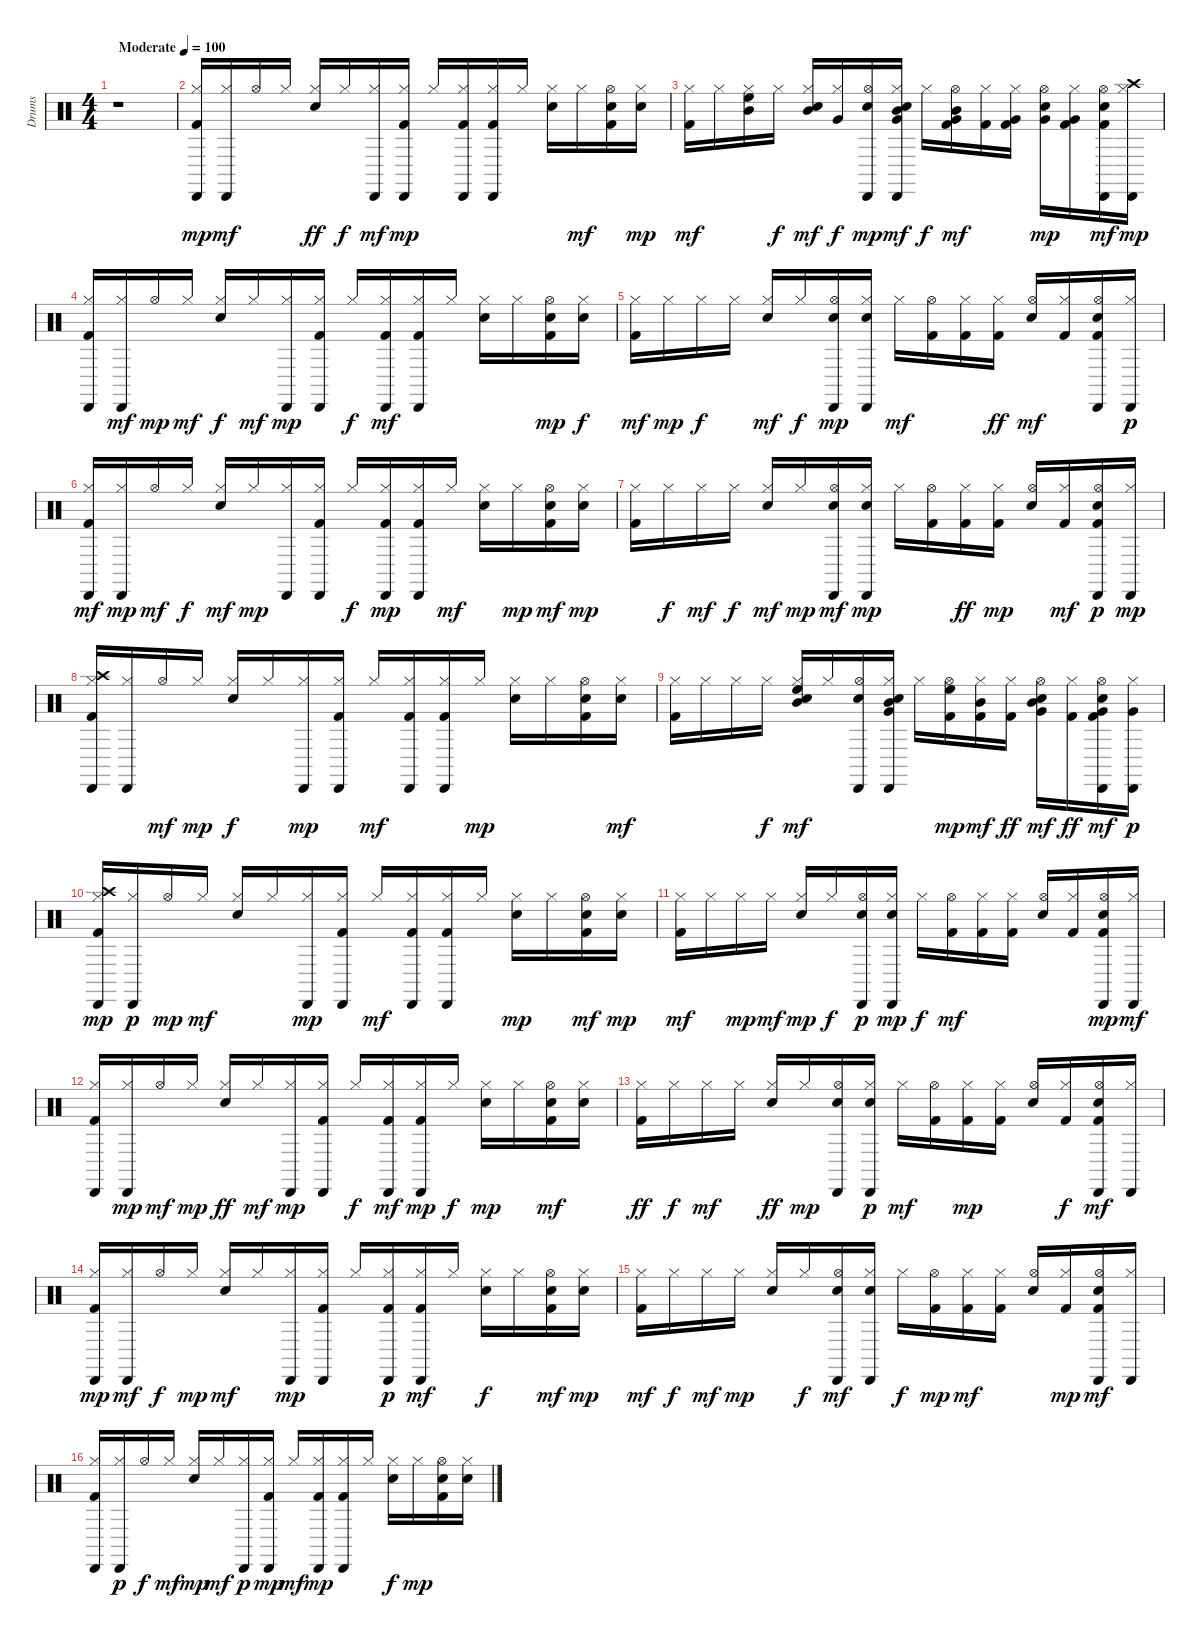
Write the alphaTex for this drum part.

\track ("Drums" "Drums") {instrument percussion}
\staff {score}
\articulation defaults
\ts (4 4)
\tempo (100 "Moderate")
\clef neutral
\ks c
r.1{dy mp} |
("Kick (hit) 2" "Hi-Hat (closed)" "Cabasa (hit)").16 ("Hi-Hat (closed)" "Cabasa (hit)").16{dy mf} "Hi-Hat (open)".16 "Hi-Hat (closed)".16 ("Snare (hit) 2" "Hi-Hat (closed)").16{dy ff} "Hi-Hat (closed)".16{dy f} ("Hi-Hat (closed)" "Cabasa (hit)").16{dy mf} ("Kick (hit) 2" "Hi-Hat (closed)" "Cabasa (hit)").16{dy mp} "Hi-Hat (closed)".16 ("Kick (hit) 2" "Hi-Hat (closed)" "Cabasa (hit)").16 ("Kick (hit) 2" "Hi-Hat (closed)" "Cabasa (hit)").16 "Hi-Hat (closed)".16 ("Snare (hit) 2" "Hi-Hat (closed)").16 "Hi-Hat (closed)".16{dy mf} ("Kick (hit) 2" "Hand Clap (hit)" "Hi-Hat (open)").16 ("Hand Clap (hit)" "Hi-Hat (closed)").16{dy mp} |
("Kick (hit) 2" "Hi-Hat (closed)").16{dy mf} "Hi-Hat (closed)".16 ("Hi-Hat (closed)" "Mid Tom (hit)" "High Floor Tom (hit)").16 "Hi-Hat (closed)".16{dy f} ("Snare (hit) 2" "Hi-Hat (closed)" "Mid Tom (hit)").16{dy mf} ("Hi-Hat (closed)" "Very Low Tom (hit)").16{dy f} ("Hand Clap (hit)" "Hi-Hat (open)" "Cabasa (hit)").16{dy mp} ("Hand Clap (hit)" "Hi-Hat (closed)" "Very Low Tom (hit)" "Mid Tom (hit)" "Cabasa (hit)").16{dy mf} "Hi-Hat (closed)".16{dy f} ("Kick (hit) 2" "Very Low Tom (hit)" "Hi-Hat (open)" "Mid Tom (hit)").16{dy mf} ("Kick (hit) 2" "Hi-Hat (closed)").16 ("Kick (hit) 2" "Hi-Hat (closed)" "Very Low Tom (hit)").16 ("Snare (hit) 2" "Very Low Tom (hit)" "Hi-Hat (open)").16{dy mp} ("Kick (hit) 2" "Hi-Hat (closed)" "Very Low Tom (hit)").16 ("Kick (hit) 2" "Hand Clap (hit)" "Hi-Hat (open)" "Cabasa (hit)").16{dy mf} ("Hi-Hat (closed)" "Crash high (hit)" "Cabasa (hit)").16{dy mp} |
("Kick (hit) 2" "Hi-Hat (closed)" "Cabasa (hit)").16 ("Hi-Hat (closed)" "Cabasa (hit)").16{dy mf} "Hi-Hat (open)".16{dy mp} "Hi-Hat (closed)".16{dy mf} ("Snare (hit) 2" "Hi-Hat (closed)").16{dy f} "Hi-Hat (closed)".16{dy mf} ("Hi-Hat (closed)" "Cabasa (hit)").16{dy mp} ("Kick (hit) 2" "Hi-Hat (closed)" "Cabasa (hit)").16 "Hi-Hat (closed)".16{dy f} ("Kick (hit) 2" "Hi-Hat (closed)" "Cabasa (hit)").16{dy mf} ("Kick (hit) 2" "Hi-Hat (closed)" "Cabasa (hit)").16 "Hi-Hat (closed)".16 ("Snare (hit) 2" "Hi-Hat (closed)").16 "Hi-Hat (closed)".16 ("Kick (hit) 2" "Hand Clap (hit)" "Hi-Hat (open)").16{dy mp} ("Hand Clap (hit)" "Hi-Hat (closed)").16{dy f} |
("Kick (hit) 2" "Hi-Hat (closed)").16{dy mf} "Hi-Hat (closed)".16{dy mp} "Hi-Hat (closed)".16{dy f} "Hi-Hat (closed)".16 ("Snare (hit) 2" "Hi-Hat (closed)").16{dy mf} "Hi-Hat (closed)".16{dy f} ("Hand Clap (hit)" "Hi-Hat (open)" "Cabasa (hit)").16{dy mp} ("Hand Clap (hit)" "Hi-Hat (closed)" "Cabasa (hit)").16 "Hi-Hat (closed)".16{dy mf} ("Kick (hit) 2" "Hi-Hat (open)").16 ("Kick (hit) 2" "Hi-Hat (closed)").16 ("Kick (hit) 2" "Hi-Hat (closed)").16{dy ff} ("Snare (hit) 2" "Hi-Hat (open)").16{dy mf} ("Kick (hit) 2" "Hi-Hat (closed)").16 ("Kick (hit) 2" "Hand Clap (hit)" "Hi-Hat (open)" "Cabasa (hit)").16 ("Hi-Hat (closed)" "Cabasa (hit)").16{dy p} |
("Kick (hit) 2" "Hi-Hat (closed)" "Cabasa (hit)").16{dy mf} ("Hi-Hat (closed)" "Cabasa (hit)").16{dy mp} "Hi-Hat (open)".16{dy mf} "Hi-Hat (closed)".16{dy f} ("Snare (hit) 2" "Hi-Hat (closed)").16{dy mf} "Hi-Hat (closed)".16{dy mp} ("Hi-Hat (closed)" "Cabasa (hit)").16 ("Kick (hit) 2" "Hi-Hat (closed)" "Cabasa (hit)").16 "Hi-Hat (closed)".16{dy f} ("Kick (hit) 2" "Hi-Hat (closed)" "Cabasa (hit)").16{dy mp} ("Kick (hit) 2" "Hi-Hat (closed)" "Cabasa (hit)").16 "Hi-Hat (closed)".16{dy mf} ("Snare (hit) 2" "Hi-Hat (closed)").16 "Hi-Hat (closed)".16{dy mp} ("Kick (hit) 2" "Hand Clap (hit)" "Hi-Hat (open)").16{dy mf} ("Hand Clap (hit)" "Hi-Hat (closed)").16{dy mp} |
("Kick (hit) 2" "Hi-Hat (closed)").16 "Hi-Hat (closed)".16{dy f} "Hi-Hat (closed)".16{dy mf} "Hi-Hat (closed)".16{dy f} ("Snare (hit) 2" "Hi-Hat (closed)").16{dy mf} "Hi-Hat (closed)".16{dy mp} ("Hand Clap (hit)" "Hi-Hat (open)" "Cabasa (hit)").16{dy mf} ("Hand Clap (hit)" "Hi-Hat (closed)" "Cabasa (hit)").16{dy mp} "Hi-Hat (closed)".16 ("Kick (hit) 2" "Hi-Hat (open)").16 ("Kick (hit) 2" "Hi-Hat (closed)").16{dy ff} ("Kick (hit) 2" "Hi-Hat (closed)").16{dy mp} ("Snare (hit) 2" "Hi-Hat (open)").16 ("Kick (hit) 2" "Hi-Hat (closed)").16{dy mf} ("Kick (hit) 2" "Hand Clap (hit)" "Hi-Hat (open)" "Cabasa (hit)").16{dy p} ("Hi-Hat (closed)" "Cabasa (hit)").16{dy mp} |
("Kick (hit) 2" "Hi-Hat (closed)" "Crash high (hit)" "Cabasa (hit)").16 ("Hi-Hat (closed)" "Cabasa (hit)").16 "Hi-Hat (open)".16{dy mf} "Hi-Hat (closed)".16{dy mp} ("Snare (hit) 2" "Hi-Hat (closed)").16{dy f} "Hi-Hat (closed)".16 ("Hi-Hat (closed)" "Cabasa (hit)").16{dy mp} ("Kick (hit) 2" "Hi-Hat (closed)" "Cabasa (hit)").16 "Hi-Hat (closed)".16{dy mf} ("Kick (hit) 2" "Hi-Hat (closed)" "Cabasa (hit)").16 ("Kick (hit) 2" "Hi-Hat (closed)" "Cabasa (hit)").16 "Hi-Hat (closed)".16{dy mp} ("Snare (hit) 2" "Hi-Hat (closed)").16 "Hi-Hat (closed)".16 ("Kick (hit) 2" "Hand Clap (hit)" "Hi-Hat (open)").16 ("Hand Clap (hit)" "Hi-Hat (closed)").16{dy mf} |
("Kick (hit) 2" "Hi-Hat (closed)").16 "Hi-Hat (closed)".16 "Hi-Hat (closed)".16 "Hi-Hat (closed)".16{dy f} ("Snare (hit) 2" "Hi-Hat (closed)" "Mid Tom (hit)" "High Floor Tom (hit)").16{dy mf} "Hi-Hat (closed)".16 ("Hand Clap (hit)" "Hi-Hat (open)" "Cabasa (hit)").16 ("Hand Clap (hit)" "Hi-Hat (closed)" "Very Low Tom (hit)" "Mid Tom (hit)" "Cabasa (hit)").16 "Hi-Hat (closed)".16 ("Kick (hit) 2" "Hi-Hat (open)" "High Floor Tom (hit)").16{dy mp} ("Kick (hit) 2" "Hi-Hat (closed)" "Mid Tom (hit)").16{dy mf} ("Kick (hit) 2" "Hi-Hat (closed)").16{dy ff} ("Snare (hit) 2" "Very Low Tom (hit)" "Hi-Hat (open)" "Mid Tom (hit)").16{dy mf} ("Kick (hit) 2" "Hi-Hat (closed)").16{dy ff} ("Kick (hit) 2" "Hand Clap (hit)" "Very Low Tom (hit)" "Hi-Hat (open)" "Cabasa (hit)").16{dy mf} ("Hi-Hat (closed)" "Very Low Tom (hit)" "Cabasa (hit)").16{dy p} |
("Kick (hit) 2" "Hi-Hat (closed)" "Crash high (hit)" "Cabasa (hit)").16{dy mp} ("Hi-Hat (closed)" "Cabasa (hit)").16{dy p} "Hi-Hat (open)".16{dy mp} "Hi-Hat (closed)".16{dy mf} ("Snare (hit) 2" "Hi-Hat (closed)").16 "Hi-Hat (closed)".16 ("Hi-Hat (closed)" "Cabasa (hit)").16{dy mp} ("Kick (hit) 2" "Hi-Hat (closed)" "Cabasa (hit)").16 "Hi-Hat (closed)".16{dy mf} ("Kick (hit) 2" "Hi-Hat (closed)" "Cabasa (hit)").16 ("Kick (hit) 2" "Hi-Hat (closed)" "Cabasa (hit)").16 "Hi-Hat (closed)".16 ("Snare (hit) 2" "Hi-Hat (closed)").16{dy mp} "Hi-Hat (closed)".16 ("Kick (hit) 2" "Hand Clap (hit)" "Hi-Hat (open)").16{dy mf} ("Hand Clap (hit)" "Hi-Hat (closed)").16{dy mp} |
("Kick (hit) 2" "Hi-Hat (closed)").16{dy mf} "Hi-Hat (closed)".16 "Hi-Hat (closed)".16{dy mp} "Hi-Hat (closed)".16{dy mf} ("Snare (hit) 2" "Hi-Hat (closed)").16{dy mp} "Hi-Hat (closed)".16{dy f} ("Hand Clap (hit)" "Hi-Hat (open)" "Cabasa (hit)").16{dy p} ("Hand Clap (hit)" "Hi-Hat (closed)" "Cabasa (hit)").16{dy mp} "Hi-Hat (closed)".16{dy f} ("Kick (hit) 2" "Hi-Hat (open)").16{dy mf} ("Kick (hit) 2" "Hi-Hat (closed)").16 ("Kick (hit) 2" "Hi-Hat (closed)").16 ("Snare (hit) 2" "Hi-Hat (open)").16 ("Kick (hit) 2" "Hi-Hat (closed)").16 ("Kick (hit) 2" "Hand Clap (hit)" "Hi-Hat (open)" "Cabasa (hit)").16{dy mp} ("Hi-Hat (closed)" "Cabasa (hit)").16{dy mf} |
("Kick (hit) 2" "Hi-Hat (closed)" "Cabasa (hit)").16 ("Hi-Hat (closed)" "Cabasa (hit)").16{dy mp} "Hi-Hat (open)".16{dy mf} "Hi-Hat (closed)".16{dy mp} ("Snare (hit) 2" "Hi-Hat (closed)").16{dy ff} "Hi-Hat (closed)".16{dy mf} ("Hi-Hat (closed)" "Cabasa (hit)").16{dy mp} ("Kick (hit) 2" "Hi-Hat (closed)" "Cabasa (hit)").16 "Hi-Hat (closed)".16{dy f} ("Kick (hit) 2" "Hi-Hat (closed)" "Cabasa (hit)").16{dy mf} ("Kick (hit) 2" "Hi-Hat (closed)" "Cabasa (hit)").16{dy mp} "Hi-Hat (closed)".16{dy f} ("Snare (hit) 2" "Hi-Hat (closed)").16{dy mp} "Hi-Hat (closed)".16 ("Kick (hit) 2" "Hand Clap (hit)" "Hi-Hat (open)").16{dy mf} ("Hand Clap (hit)" "Hi-Hat (closed)").16 |
("Kick (hit) 2" "Hi-Hat (closed)").16{dy ff} "Hi-Hat (closed)".16{dy f} "Hi-Hat (closed)".16{dy mf} "Hi-Hat (closed)".16 ("Snare (hit) 2" "Hi-Hat (closed)").16{dy ff} "Hi-Hat (closed)".16{dy mp} ("Hand Clap (hit)" "Hi-Hat (open)" "Cabasa (hit)").16 ("Hand Clap (hit)" "Hi-Hat (closed)" "Cabasa (hit)").16{dy p} "Hi-Hat (closed)".16{dy mf} ("Kick (hit) 2" "Hi-Hat (open)").16 ("Kick (hit) 2" "Hi-Hat (closed)").16{dy mp} ("Kick (hit) 2" "Hi-Hat (closed)").16 ("Snare (hit) 2" "Hi-Hat (open)").16 ("Kick (hit) 2" "Hi-Hat (closed)").16{dy f} ("Kick (hit) 2" "Hand Clap (hit)" "Hi-Hat (open)" "Cabasa (hit)").16{dy mf} ("Hi-Hat (closed)" "Cabasa (hit)").16 |
("Kick (hit) 2" "Hi-Hat (closed)" "Cabasa (hit)").16{dy mp} ("Hi-Hat (closed)" "Cabasa (hit)").16{dy mf} "Hi-Hat (open)".16{dy f} "Hi-Hat (closed)".16{dy mp} ("Snare (hit) 2" "Hi-Hat (closed)").16{dy mf} "Hi-Hat (closed)".16 ("Hi-Hat (closed)" "Cabasa (hit)").16{dy mp} ("Kick (hit) 2" "Hi-Hat (closed)" "Cabasa (hit)").16 "Hi-Hat (closed)".16 ("Kick (hit) 2" "Hi-Hat (closed)" "Cabasa (hit)").16{dy p} ("Kick (hit) 2" "Hi-Hat (closed)" "Cabasa (hit)").16{dy mf} "Hi-Hat (closed)".16 ("Snare (hit) 2" "Hi-Hat (closed)").16{dy f} "Hi-Hat (closed)".16 ("Kick (hit) 2" "Hand Clap (hit)" "Hi-Hat (open)").16{dy mf} ("Hand Clap (hit)" "Hi-Hat (closed)").16{dy mp} |
("Kick (hit) 2" "Hi-Hat (closed)").16{dy mf} "Hi-Hat (closed)".16{dy f} "Hi-Hat (closed)".16{dy mf} "Hi-Hat (closed)".16{dy mp} ("Snare (hit) 2" "Hi-Hat (closed)").16 "Hi-Hat (closed)".16{dy f} ("Hand Clap (hit)" "Hi-Hat (open)" "Cabasa (hit)").16{dy mf} ("Hand Clap (hit)" "Hi-Hat (closed)" "Cabasa (hit)").16 "Hi-Hat (closed)".16{dy f} ("Kick (hit) 2" "Hi-Hat (open)").16{dy mp} ("Kick (hit) 2" "Hi-Hat (closed)").16{dy mf} ("Kick (hit) 2" "Hi-Hat (closed)").16 ("Snare (hit) 2" "Hi-Hat (open)").16 ("Kick (hit) 2" "Hi-Hat (closed)").16{dy mp} ("Kick (hit) 2" "Hand Clap (hit)" "Hi-Hat (open)" "Cabasa (hit)").16{dy mf} ("Hi-Hat (closed)" "Cabasa (hit)").16 |
("Kick (hit) 2" "Hi-Hat (closed)" "Cabasa (hit)").16 ("Hi-Hat (closed)" "Cabasa (hit)").16{dy p} "Hi-Hat (open)".16{dy f} "Hi-Hat (closed)".16{dy mf} ("Snare (hit) 2" "Hi-Hat (closed)").16{dy mp} "Hi-Hat (closed)".16{dy mf} ("Hi-Hat (closed)" "Cabasa (hit)").16{dy p} ("Kick (hit) 2" "Hi-Hat (closed)" "Cabasa (hit)").16{dy mp} "Hi-Hat (closed)".16{dy mf} ("Kick (hit) 2" "Hi-Hat (closed)" "Cabasa (hit)").16{dy mp} ("Kick (hit) 2" "Hi-Hat (closed)" "Cabasa (hit)").16 "Hi-Hat (closed)".16 ("Snare (hit) 2" "Hi-Hat (closed)").16{dy f} "Hi-Hat (closed)".16{dy mp} ("Kick (hit) 2" "Hand Clap (hit)" "Hi-Hat (open)").16 ("Hand Clap (hit)" "Hi-Hat (closed)").16
